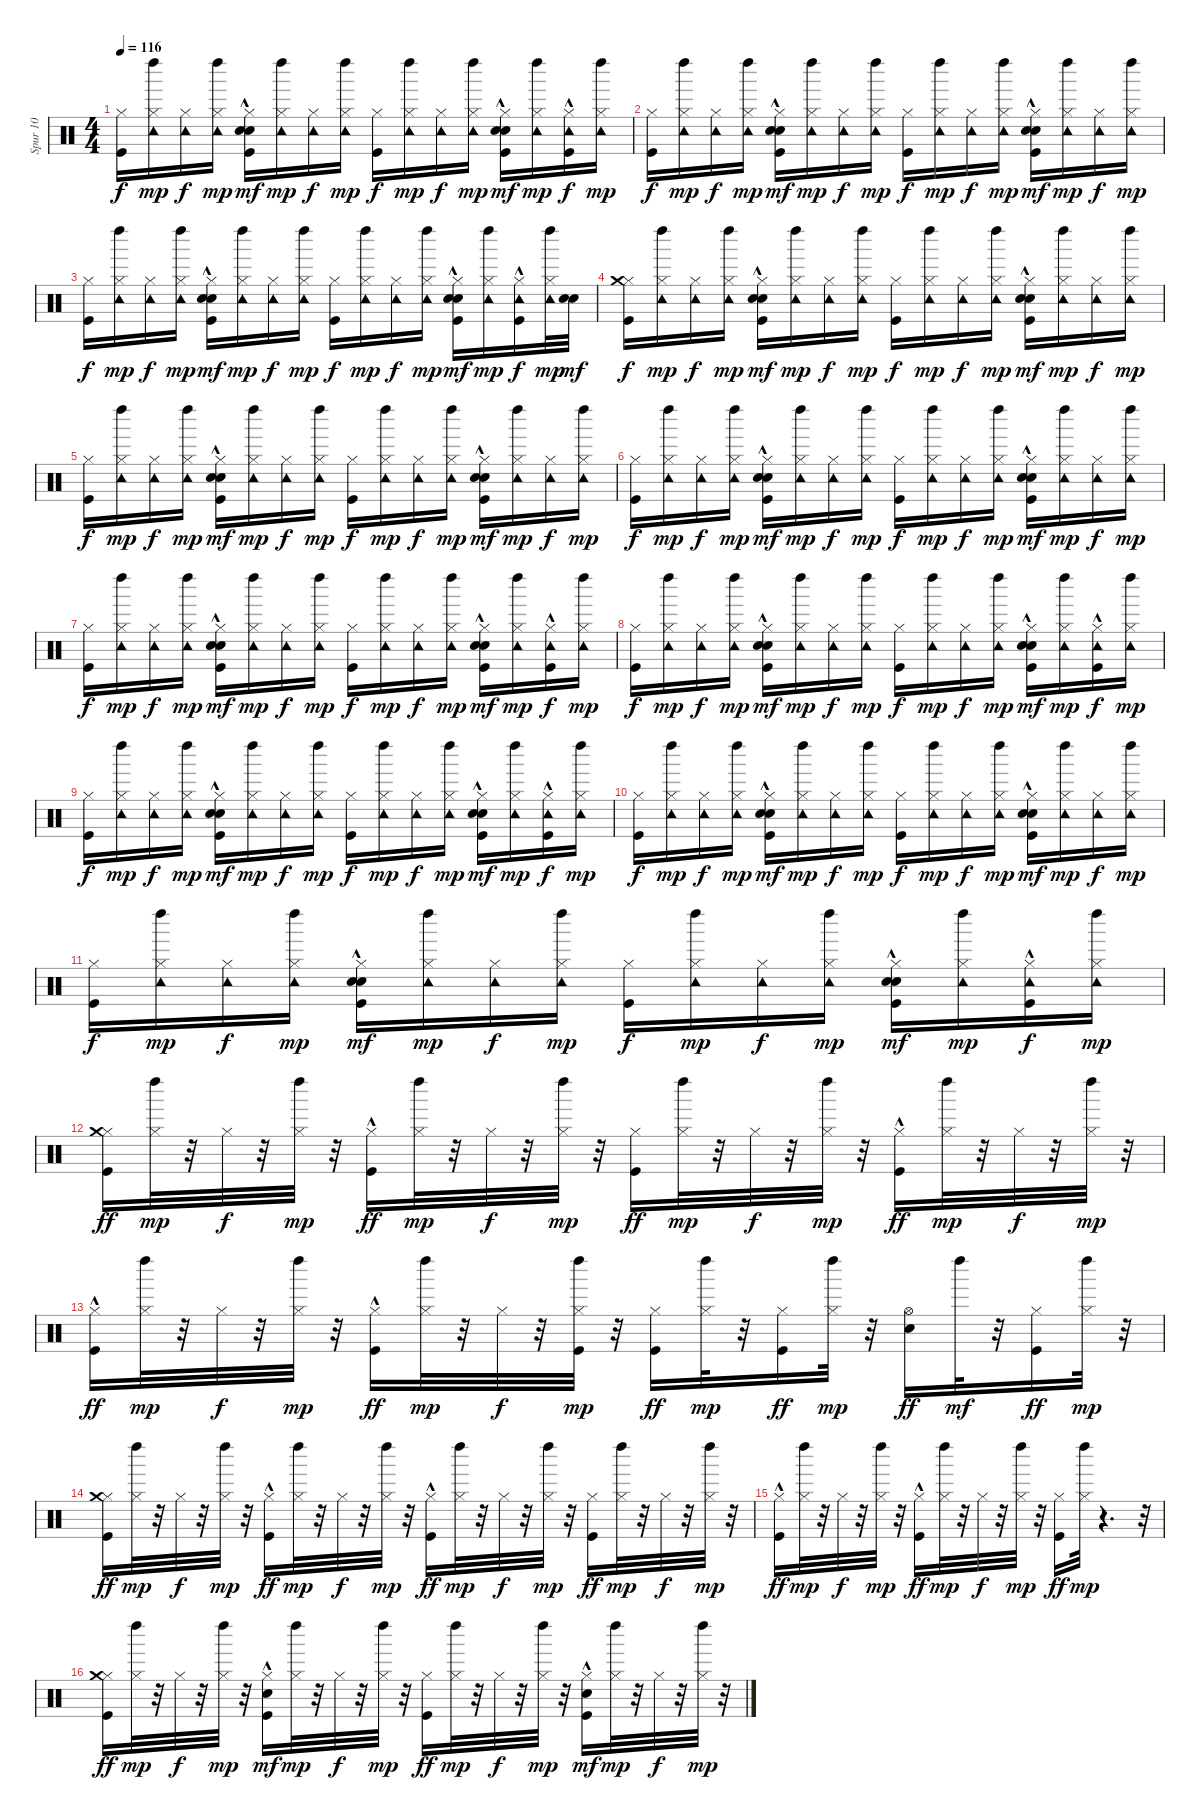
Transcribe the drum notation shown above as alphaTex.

\track ("Spur 10" "Spur 10") {instrument percussion}
\staff {score}
\articulation defaults
\ts (4 4)
\tempo 116
\clef neutral
\ks c
("Kick (hit)" "Hi-Hat (closed)").16{dy f} ("Left Maraca (hit)" "Hi-Hat (closed)" "Tambourine (hit)").16{dy mp} ("Hi-Hat (closed)" "Tambourine (hit)").16{dy f} ("Left Maraca (hit)" "Hi-Hat (closed)" "Tambourine (hit)").16{dy mp} ("Kick (hit)"{hac} "Snare (hit) 2"{hac} "Hi-Hat (closed)" "Hand Clap (hit)"{hac}).16{dy mf} ("Left Maraca (hit)" "Hi-Hat (closed)" "Tambourine (hit)").16{dy mp} ("Hi-Hat (closed)" "Tambourine (hit)").16{dy f} ("Left Maraca (hit)" "Hi-Hat (closed)" "Tambourine (hit)").16{dy mp} ("Kick (hit)" "Hi-Hat (closed)").16{dy f} ("Left Maraca (hit)" "Hi-Hat (closed)" "Tambourine (hit)").16{dy mp} ("Hi-Hat (closed)" "Tambourine (hit)").16{dy f} ("Left Maraca (hit)" "Hi-Hat (closed)" "Tambourine (hit)").16{dy mp} ("Kick (hit)"{hac} "Snare (hit) 2"{hac} "Hi-Hat (closed)" "Hand Clap (hit)"{hac}).16{dy mf} ("Left Maraca (hit)" "Hi-Hat (closed)" "Tambourine (hit)").16{dy mp} ("Kick (hit)"{hac} "Hi-Hat (closed)" "Tambourine (hit)").16{dy f} ("Left Maraca (hit)" "Hi-Hat (closed)" "Tambourine (hit)").16{dy mp} |
("Kick (hit)" "Hi-Hat (closed)").16{dy f} ("Left Maraca (hit)" "Hi-Hat (closed)" "Tambourine (hit)").16{dy mp} ("Hi-Hat (closed)" "Tambourine (hit)").16{dy f} ("Left Maraca (hit)" "Hi-Hat (closed)" "Tambourine (hit)").16{dy mp} ("Kick (hit)"{hac} "Snare (hit) 2"{hac} "Hi-Hat (closed)" "Hand Clap (hit)"{hac}).16{dy mf} ("Left Maraca (hit)" "Hi-Hat (closed)" "Tambourine (hit)").16{dy mp} ("Hi-Hat (closed)" "Tambourine (hit)").16{dy f} ("Left Maraca (hit)" "Hi-Hat (closed)" "Tambourine (hit)").16{dy mp} ("Kick (hit)" "Hi-Hat (closed)").16{dy f} ("Left Maraca (hit)" "Hi-Hat (closed)" "Tambourine (hit)").16{dy mp} ("Hi-Hat (closed)" "Tambourine (hit)").16{dy f} ("Left Maraca (hit)" "Hi-Hat (closed)" "Tambourine (hit)").16{dy mp} ("Kick (hit)"{hac} "Snare (hit) 2"{hac} "Hi-Hat (closed)" "Hand Clap (hit)"{hac}).16{dy mf} ("Left Maraca (hit)" "Hi-Hat (closed)" "Tambourine (hit)").16{dy mp} ("Hi-Hat (closed)" "Tambourine (hit)").16{dy f} ("Left Maraca (hit)" "Hi-Hat (closed)" "Tambourine (hit)").16{dy mp} |
("Kick (hit)" "Hi-Hat (closed)").16{dy f} ("Left Maraca (hit)" "Hi-Hat (closed)" "Tambourine (hit)").16{dy mp} ("Hi-Hat (closed)" "Tambourine (hit)").16{dy f} ("Left Maraca (hit)" "Hi-Hat (closed)" "Tambourine (hit)").16{dy mp} ("Kick (hit)"{hac} "Snare (hit) 2"{hac} "Hi-Hat (closed)" "Hand Clap (hit)"{hac}).16{dy mf} ("Left Maraca (hit)" "Hi-Hat (closed)" "Tambourine (hit)").16{dy mp} ("Hi-Hat (closed)" "Tambourine (hit)").16{dy f} ("Left Maraca (hit)" "Hi-Hat (closed)" "Tambourine (hit)").16{dy mp} ("Kick (hit)" "Hi-Hat (closed)").16{dy f} ("Left Maraca (hit)" "Hi-Hat (closed)" "Tambourine (hit)").16{dy mp} ("Hi-Hat (closed)" "Tambourine (hit)").16{dy f} ("Left Maraca (hit)" "Hi-Hat (closed)" "Tambourine (hit)").16{dy mp} ("Kick (hit)"{hac} "Snare (hit) 2"{hac} "Hi-Hat (closed)" "Hand Clap (hit)"{hac}).16{dy mf} ("Left Maraca (hit)" "Hi-Hat (closed)" "Tambourine (hit)").16{dy mp} ("Kick (hit)"{hac} "Hi-Hat (closed)" "Tambourine (hit)").16{dy f} ("Left Maraca (hit)" "Hi-Hat (closed)" "Tambourine (hit)").32{dy mp} ("Snare (hit) 2" "Snare (hit) 2").32{dy mf} |
("Kick (hit)" "Hi-Hat (closed)" "Crash medium (hit)").16{dy f} ("Left Maraca (hit)" "Hi-Hat (closed)" "Tambourine (hit)").16{dy mp} ("Hi-Hat (closed)" "Tambourine (hit)").16{dy f} ("Left Maraca (hit)" "Hi-Hat (closed)" "Tambourine (hit)").16{dy mp} ("Kick (hit)"{hac} "Snare (hit) 2"{hac} "Hi-Hat (closed)" "Hand Clap (hit)"{hac}).16{dy mf} ("Left Maraca (hit)" "Hi-Hat (closed)" "Tambourine (hit)").16{dy mp} ("Hi-Hat (closed)" "Tambourine (hit)").16{dy f} ("Left Maraca (hit)" "Hi-Hat (closed)" "Tambourine (hit)").16{dy mp} ("Kick (hit)" "Hi-Hat (closed)").16{dy f} ("Left Maraca (hit)" "Hi-Hat (closed)" "Tambourine (hit)").16{dy mp} ("Hi-Hat (closed)" "Tambourine (hit)").16{dy f} ("Left Maraca (hit)" "Hi-Hat (closed)" "Tambourine (hit)").16{dy mp} ("Kick (hit)"{hac} "Snare (hit) 2"{hac} "Hi-Hat (closed)" "Hand Clap (hit)"{hac}).16{dy mf} ("Left Maraca (hit)" "Hi-Hat (closed)" "Tambourine (hit)").16{dy mp} ("Hi-Hat (closed)" "Tambourine (hit)").16{dy f} ("Left Maraca (hit)" "Hi-Hat (closed)" "Tambourine (hit)").16{dy mp} |
("Kick (hit)" "Hi-Hat (closed)").16{dy f} ("Left Maraca (hit)" "Hi-Hat (closed)" "Tambourine (hit)").16{dy mp} ("Hi-Hat (closed)" "Tambourine (hit)").16{dy f} ("Left Maraca (hit)" "Hi-Hat (closed)" "Tambourine (hit)").16{dy mp} ("Kick (hit)"{hac} "Snare (hit) 2"{hac} "Hi-Hat (closed)" "Hand Clap (hit)"{hac}).16{dy mf} ("Left Maraca (hit)" "Hi-Hat (closed)" "Tambourine (hit)").16{dy mp} ("Hi-Hat (closed)" "Tambourine (hit)").16{dy f} ("Left Maraca (hit)" "Hi-Hat (closed)" "Tambourine (hit)").16{dy mp} ("Kick (hit)" "Hi-Hat (closed)").16{dy f} ("Left Maraca (hit)" "Hi-Hat (closed)" "Tambourine (hit)").16{dy mp} ("Hi-Hat (closed)" "Tambourine (hit)").16{dy f} ("Left Maraca (hit)" "Hi-Hat (closed)" "Tambourine (hit)").16{dy mp} ("Kick (hit)"{hac} "Snare (hit) 2"{hac} "Hi-Hat (closed)" "Hand Clap (hit)"{hac}).16{dy mf} ("Left Maraca (hit)" "Hi-Hat (closed)" "Tambourine (hit)").16{dy mp} ("Hi-Hat (closed)" "Tambourine (hit)").16{dy f} ("Left Maraca (hit)" "Hi-Hat (closed)" "Tambourine (hit)").16{dy mp} |
("Kick (hit)" "Hi-Hat (closed)").16{dy f} ("Left Maraca (hit)" "Hi-Hat (closed)" "Tambourine (hit)").16{dy mp} ("Hi-Hat (closed)" "Tambourine (hit)").16{dy f} ("Left Maraca (hit)" "Hi-Hat (closed)" "Tambourine (hit)").16{dy mp} ("Kick (hit)"{hac} "Snare (hit) 2"{hac} "Hi-Hat (closed)" "Hand Clap (hit)"{hac}).16{dy mf} ("Left Maraca (hit)" "Hi-Hat (closed)" "Tambourine (hit)").16{dy mp} ("Hi-Hat (closed)" "Tambourine (hit)").16{dy f} ("Left Maraca (hit)" "Hi-Hat (closed)" "Tambourine (hit)").16{dy mp} ("Kick (hit)" "Hi-Hat (closed)").16{dy f} ("Left Maraca (hit)" "Hi-Hat (closed)" "Tambourine (hit)").16{dy mp} ("Hi-Hat (closed)" "Tambourine (hit)").16{dy f} ("Left Maraca (hit)" "Hi-Hat (closed)" "Tambourine (hit)").16{dy mp} ("Kick (hit)"{hac} "Snare (hit) 2"{hac} "Hi-Hat (closed)" "Hand Clap (hit)"{hac}).16{dy mf} ("Left Maraca (hit)" "Hi-Hat (closed)" "Tambourine (hit)").16{dy mp} ("Hi-Hat (closed)" "Tambourine (hit)").16{dy f} ("Left Maraca (hit)" "Hi-Hat (closed)" "Tambourine (hit)").16{dy mp} |
("Kick (hit)" "Hi-Hat (closed)").16{dy f} ("Left Maraca (hit)" "Hi-Hat (closed)" "Tambourine (hit)").16{dy mp} ("Hi-Hat (closed)" "Tambourine (hit)").16{dy f} ("Left Maraca (hit)" "Hi-Hat (closed)" "Tambourine (hit)").16{dy mp} ("Kick (hit)"{hac} "Snare (hit) 2"{hac} "Hi-Hat (closed)" "Hand Clap (hit)"{hac}).16{dy mf} ("Left Maraca (hit)" "Hi-Hat (closed)" "Tambourine (hit)").16{dy mp} ("Hi-Hat (closed)" "Tambourine (hit)").16{dy f} ("Left Maraca (hit)" "Hi-Hat (closed)" "Tambourine (hit)").16{dy mp} ("Kick (hit)" "Hi-Hat (closed)").16{dy f} ("Left Maraca (hit)" "Hi-Hat (closed)" "Tambourine (hit)").16{dy mp} ("Hi-Hat (closed)" "Tambourine (hit)").16{dy f} ("Left Maraca (hit)" "Hi-Hat (closed)" "Tambourine (hit)").16{dy mp} ("Kick (hit)"{hac} "Snare (hit) 2"{hac} "Hi-Hat (closed)" "Hand Clap (hit)"{hac}).16{dy mf} ("Left Maraca (hit)" "Hi-Hat (closed)" "Tambourine (hit)").16{dy mp} ("Kick (hit)"{hac} "Hi-Hat (closed)" "Tambourine (hit)").16{dy f} ("Left Maraca (hit)" "Hi-Hat (closed)" "Tambourine (hit)").16{dy mp} |
("Kick (hit)" "Hi-Hat (closed)").16{dy f} ("Left Maraca (hit)" "Hi-Hat (closed)" "Tambourine (hit)").16{dy mp} ("Hi-Hat (closed)" "Tambourine (hit)").16{dy f} ("Left Maraca (hit)" "Hi-Hat (closed)" "Tambourine (hit)").16{dy mp} ("Kick (hit)"{hac} "Snare (hit) 2"{hac} "Hi-Hat (closed)" "Hand Clap (hit)"{hac}).16{dy mf} ("Left Maraca (hit)" "Hi-Hat (closed)" "Tambourine (hit)").16{dy mp} ("Hi-Hat (closed)" "Tambourine (hit)").16{dy f} ("Left Maraca (hit)" "Hi-Hat (closed)" "Tambourine (hit)").16{dy mp} ("Kick (hit)" "Hi-Hat (closed)").16{dy f} ("Left Maraca (hit)" "Hi-Hat (closed)" "Tambourine (hit)").16{dy mp} ("Hi-Hat (closed)" "Tambourine (hit)").16{dy f} ("Left Maraca (hit)" "Hi-Hat (closed)" "Tambourine (hit)").16{dy mp} ("Kick (hit)"{hac} "Snare (hit) 2"{hac} "Hi-Hat (closed)" "Hand Clap (hit)"{hac}).16{dy mf} ("Left Maraca (hit)" "Hi-Hat (closed)" "Tambourine (hit)").16{dy mp} ("Kick (hit)"{hac} "Hi-Hat (closed)" "Tambourine (hit)").16{dy f} ("Left Maraca (hit)" "Hi-Hat (closed)" "Tambourine (hit)").16{dy mp} |
("Kick (hit)" "Hi-Hat (closed)").16{dy f} ("Left Maraca (hit)" "Hi-Hat (closed)" "Tambourine (hit)").16{dy mp} ("Hi-Hat (closed)" "Tambourine (hit)").16{dy f} ("Left Maraca (hit)" "Hi-Hat (closed)" "Tambourine (hit)").16{dy mp} ("Kick (hit)"{hac} "Snare (hit) 2"{hac} "Hi-Hat (closed)" "Hand Clap (hit)"{hac}).16{dy mf} ("Left Maraca (hit)" "Hi-Hat (closed)" "Tambourine (hit)").16{dy mp} ("Hi-Hat (closed)" "Tambourine (hit)").16{dy f} ("Left Maraca (hit)" "Hi-Hat (closed)" "Tambourine (hit)").16{dy mp} ("Kick (hit)" "Hi-Hat (closed)").16{dy f} ("Left Maraca (hit)" "Hi-Hat (closed)" "Tambourine (hit)").16{dy mp} ("Hi-Hat (closed)" "Tambourine (hit)").16{dy f} ("Left Maraca (hit)" "Hi-Hat (closed)" "Tambourine (hit)").16{dy mp} ("Kick (hit)"{hac} "Snare (hit) 2"{hac} "Hi-Hat (closed)" "Hand Clap (hit)"{hac}).16{dy mf} ("Left Maraca (hit)" "Hi-Hat (closed)" "Tambourine (hit)").16{dy mp} ("Kick (hit)"{hac} "Hi-Hat (closed)" "Tambourine (hit)").16{dy f} ("Left Maraca (hit)" "Hi-Hat (closed)" "Tambourine (hit)").16{dy mp} |
("Kick (hit)" "Hi-Hat (closed)").16{dy f} ("Left Maraca (hit)" "Hi-Hat (closed)" "Tambourine (hit)").16{dy mp} ("Hi-Hat (closed)" "Tambourine (hit)").16{dy f} ("Left Maraca (hit)" "Hi-Hat (closed)" "Tambourine (hit)").16{dy mp} ("Kick (hit)"{hac} "Snare (hit) 2"{hac} "Hi-Hat (closed)" "Hand Clap (hit)"{hac}).16{dy mf} ("Left Maraca (hit)" "Hi-Hat (closed)" "Tambourine (hit)").16{dy mp} ("Hi-Hat (closed)" "Tambourine (hit)").16{dy f} ("Left Maraca (hit)" "Hi-Hat (closed)" "Tambourine (hit)").16{dy mp} ("Kick (hit)" "Hi-Hat (closed)").16{dy f} ("Left Maraca (hit)" "Hi-Hat (closed)" "Tambourine (hit)").16{dy mp} ("Hi-Hat (closed)" "Tambourine (hit)").16{dy f} ("Left Maraca (hit)" "Hi-Hat (closed)" "Tambourine (hit)").16{dy mp} ("Kick (hit)"{hac} "Snare (hit) 2"{hac} "Hi-Hat (closed)" "Hand Clap (hit)"{hac}).16{dy mf} ("Left Maraca (hit)" "Hi-Hat (closed)" "Tambourine (hit)").16{dy mp} ("Hi-Hat (closed)" "Tambourine (hit)").16{dy f} ("Left Maraca (hit)" "Hi-Hat (closed)" "Tambourine (hit)").16{dy mp} |
("Kick (hit)" "Hi-Hat (closed)").16{dy f} ("Left Maraca (hit)" "Hi-Hat (closed)" "Tambourine (hit)").16{dy mp} ("Hi-Hat (closed)" "Tambourine (hit)").16{dy f} ("Left Maraca (hit)" "Hi-Hat (closed)" "Tambourine (hit)").16{dy mp} ("Kick (hit)"{hac} "Snare (hit) 2"{hac} "Hi-Hat (closed)" "Hand Clap (hit)"{hac}).16{dy mf} ("Left Maraca (hit)" "Hi-Hat (closed)" "Tambourine (hit)").16{dy mp} ("Hi-Hat (closed)" "Tambourine (hit)").16{dy f} ("Left Maraca (hit)" "Hi-Hat (closed)" "Tambourine (hit)").16{dy mp} ("Kick (hit)" "Hi-Hat (closed)").16{dy f} ("Left Maraca (hit)" "Hi-Hat (closed)" "Tambourine (hit)").16{dy mp} ("Hi-Hat (closed)" "Tambourine (hit)").16{dy f} ("Left Maraca (hit)" "Hi-Hat (closed)" "Tambourine (hit)").16{dy mp} ("Kick (hit)"{hac} "Snare (hit) 2"{hac} "Hi-Hat (closed)" "Hand Clap (hit)"{hac}).16{dy mf} ("Left Maraca (hit)" "Hi-Hat (closed)" "Tambourine (hit)").16{dy mp} ("Kick (hit)"{hac} "Hi-Hat (closed)" "Tambourine (hit)").16{dy f} ("Left Maraca (hit)" "Hi-Hat (closed)" "Tambourine (hit)").16{dy mp} |
("Kick (hit)" "Hi-Hat (closed)" "Crash medium (hit)").16{dy ff} ("Left Maraca (hit)" "Hi-Hat (closed)").32{dy mp} r.32 "Hi-Hat (closed)".32{dy f} r.32 ("Left Maraca (hit)" "Hi-Hat (closed)").32{dy mp} r.32 ("Kick (hit)"{hac} "Hi-Hat (closed)").16{dy ff} ("Left Maraca (hit)" "Hi-Hat (closed)").32{dy mp} r.32 "Hi-Hat (closed)".32{dy f} r.32 ("Left Maraca (hit)" "Hi-Hat (closed)").32{dy mp} r.32 ("Kick (hit)" "Hi-Hat (closed)").16{dy ff} ("Left Maraca (hit)" "Hi-Hat (closed)").32{dy mp} r.32 "Hi-Hat (closed)".32{dy f} r.32 ("Left Maraca (hit)" "Hi-Hat (closed)").32{dy mp} r.32 ("Kick (hit)"{hac} "Hi-Hat (closed)").16{dy ff} ("Left Maraca (hit)" "Hi-Hat (closed)").32{dy mp} r.32 "Hi-Hat (closed)".32{dy f} r.32 ("Left Maraca (hit)" "Hi-Hat (closed)").32{dy mp} r.32 |
("Kick (hit)"{hac} "Hi-Hat (closed)").16{dy ff} ("Left Maraca (hit)" "Hi-Hat (closed)").32{dy mp} r.32 "Hi-Hat (closed)".32{dy f} r.32 ("Left Maraca (hit)" "Hi-Hat (closed)").32{dy mp} r.32 ("Kick (hit)"{hac} "Hi-Hat (closed)").16{dy ff} ("Left Maraca (hit)" "Hi-Hat (closed)").32{dy mp} r.32 "Hi-Hat (closed)".32{dy f} r.32 ("Kick (hit)" "Left Maraca (hit)" "Hi-Hat (closed)").32{dy mp} r.32 ("Kick (hit)" "Hi-Hat (closed)").16{dy ff} ("Left Maraca (hit)" "Hi-Hat (closed)").32{dy mp} r.32 ("Kick (hit)" "Hi-Hat (closed)").16{dy ff} ("Left Maraca (hit)" "Hi-Hat (closed)").32{dy mp} r.32 ("Snare (hit) 2" "Hi-Hat (open)").16{dy ff} "Left Maraca (hit)".32{dy mf} r.32 ("Kick (hit)" "Hi-Hat (closed)").16{dy ff} ("Left Maraca (hit)" "Hi-Hat (closed)").32{dy mp} r.32 |
("Kick (hit)" "Hi-Hat (closed)" "Crash medium (hit)").16{dy ff} ("Left Maraca (hit)" "Hi-Hat (closed)").32{dy mp} r.32 "Hi-Hat (closed)".32{dy f} r.32 ("Left Maraca (hit)" "Hi-Hat (closed)").32{dy mp} r.32 ("Kick (hit)"{hac} "Hi-Hat (closed)").16{dy ff} ("Left Maraca (hit)" "Hi-Hat (closed)").32{dy mp} r.32 "Hi-Hat (closed)".32{dy f} r.32 ("Left Maraca (hit)" "Hi-Hat (closed)").32{dy mp} r.32 ("Kick (hit)"{hac} "Hi-Hat (closed)").16{dy ff} ("Left Maraca (hit)" "Hi-Hat (closed)").32{dy mp} r.32 "Hi-Hat (closed)".32{dy f} r.32 ("Left Maraca (hit)" "Hi-Hat (closed)").32{dy mp} r.32 ("Kick (hit)" "Hi-Hat (closed)").16{dy ff} ("Left Maraca (hit)" "Hi-Hat (closed)").32{dy mp} r.32 "Hi-Hat (closed)".32{dy f} r.32 ("Left Maraca (hit)" "Hi-Hat (closed)").32{dy mp} r.32 |
("Kick (hit)"{hac} "Hi-Hat (closed)").16{dy ff} ("Left Maraca (hit)" "Hi-Hat (closed)").32{dy mp} r.32 "Hi-Hat (closed)".32{dy f} r.32 ("Left Maraca (hit)" "Hi-Hat (closed)").32{dy mp} r.32 ("Kick (hit)"{hac} "Hi-Hat (closed)").16{dy ff} ("Left Maraca (hit)" "Hi-Hat (closed)").32{dy mp} r.32 "Hi-Hat (closed)".32{dy f} r.32 ("Left Maraca (hit)" "Hi-Hat (closed)").32{dy mp} r.32 ("Kick (hit)" "Hi-Hat (closed)").16{dy ff} ("Left Maraca (hit)" "Hi-Hat (closed)").32{dy mp} r.4{d} r.32 |
("Kick (hit)" "Hi-Hat (closed)" "Crash medium (hit)").16{dy ff} ("Left Maraca (hit)" "Hi-Hat (closed)").32{dy mp} r.32 "Hi-Hat (closed)".32{dy f} r.32 ("Left Maraca (hit)" "Hi-Hat (closed)").32{dy mp} r.32 ("Kick (hit)"{hac} "Snare (hit) 2"{hac} "Hi-Hat (closed)").16{dy mf} ("Left Maraca (hit)" "Hi-Hat (closed)").32{dy mp} r.32 "Hi-Hat (closed)".32{dy f} r.32 ("Left Maraca (hit)" "Hi-Hat (closed)").32{dy mp} r.32 ("Kick (hit)" "Hi-Hat (closed)").16{dy ff} ("Left Maraca (hit)" "Hi-Hat (closed)").32{dy mp} r.32 "Hi-Hat (closed)".32{dy f} r.32 ("Left Maraca (hit)" "Hi-Hat (closed)").32{dy mp} r.32 ("Kick (hit)"{hac} "Snare (hit) 2"{hac} "Hi-Hat (closed)").16{dy mf} ("Left Maraca (hit)" "Hi-Hat (closed)").32{dy mp} r.32 "Hi-Hat (closed)".32{dy f} r.32 ("Left Maraca (hit)" "Hi-Hat (closed)").32{dy mp} r.32
